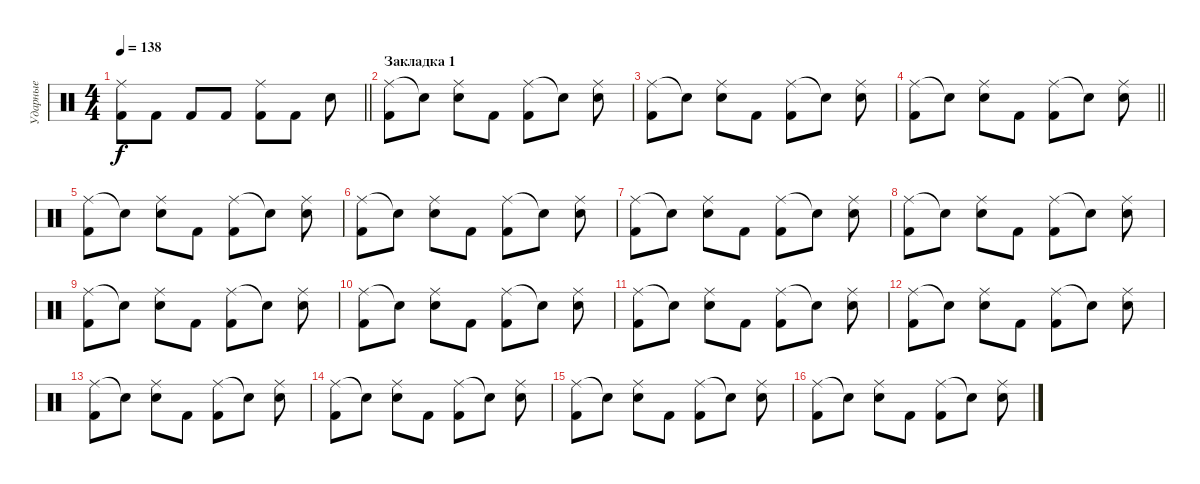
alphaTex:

\track ("Ударные" "Ударные") {instrument percussion}
\staff {score}
\articulation defaults
\ts (4 4)
\tempo 138
\clef neutral
\barLineRight lightlight
\ks c
("Ride (middle)" "Kick (hit) 2").8{dy f} "Kick (hit) 2".8 "Kick (hit) 2".8 "Kick (hit) 2".8 ("Ride (middle)" "Kick (hit) 2").8 "Kick (hit) 2".8 "Snare (hit) 2".8 |
\section ("" "Закладка 1")
("Ride (middle)" "Kick (hit) 2").8 "Snare (hit)"{t}.8 ("Ride (middle)" "Snare (hit) 2").8 "Kick (hit) 2".8 ("Ride (middle)" "Kick (hit) 2").8 "Snare (hit)"{t}.8 ("Ride (middle)" "Snare (hit) 2").8 |
("Ride (middle)" "Kick (hit) 2").8 "Snare (hit)"{t}.8 ("Ride (middle)" "Snare (hit) 2").8 "Kick (hit) 2".8 ("Ride (middle)" "Kick (hit) 2").8 "Snare (hit)"{t}.8 ("Ride (middle)" "Snare (hit) 2").8 |
\barLineRight lightlight
("Ride (middle)" "Kick (hit) 2").8 "Snare (hit)"{t}.8 ("Ride (middle)" "Snare (hit) 2").8 "Kick (hit) 2".8 ("Ride (middle)" "Kick (hit) 2").8 "Snare (hit)"{t}.8 ("Ride (middle)" "Snare (hit) 2").8 |
("Ride (middle)" "Kick (hit) 2").8 "Snare (hit)"{t}.8 ("Ride (middle)" "Snare (hit) 2").8 "Kick (hit) 2".8 ("Ride (middle)" "Kick (hit) 2").8 "Snare (hit)"{t}.8 ("Ride (middle)" "Snare (hit) 2").8 |
("Ride (middle)" "Kick (hit) 2").8 "Snare (hit)"{t}.8 ("Ride (middle)" "Snare (hit) 2").8 "Kick (hit) 2".8 ("Ride (middle)" "Kick (hit) 2").8 "Snare (hit)"{t}.8 ("Ride (middle)" "Snare (hit) 2").8 |
("Ride (middle)" "Kick (hit) 2").8 "Snare (hit)"{t}.8 ("Ride (middle)" "Snare (hit) 2").8 "Kick (hit) 2".8 ("Ride (middle)" "Kick (hit) 2").8 "Snare (hit)"{t}.8 ("Ride (middle)" "Snare (hit) 2").8 |
("Ride (middle)" "Kick (hit) 2").8 "Snare (hit)"{t}.8 ("Ride (middle)" "Snare (hit) 2").8 "Kick (hit) 2".8 ("Ride (middle)" "Kick (hit) 2").8 "Snare (hit)"{t}.8 ("Ride (middle)" "Snare (hit) 2").8 |
("Ride (middle)" "Kick (hit) 2").8 "Snare (hit)"{t}.8 ("Ride (middle)" "Snare (hit) 2").8 "Kick (hit) 2".8 ("Ride (middle)" "Kick (hit) 2").8 "Snare (hit)"{t}.8 ("Ride (middle)" "Snare (hit) 2").8 |
("Ride (middle)" "Kick (hit) 2").8 "Snare (hit)"{t}.8 ("Ride (middle)" "Snare (hit) 2").8 "Kick (hit) 2".8 ("Ride (middle)" "Kick (hit) 2").8 "Snare (hit)"{t}.8 ("Ride (middle)" "Snare (hit) 2").8 |
("Ride (middle)" "Kick (hit) 2").8 "Snare (hit)"{t}.8 ("Ride (middle)" "Snare (hit) 2").8 "Kick (hit) 2".8 ("Ride (middle)" "Kick (hit) 2").8 "Snare (hit)"{t}.8 ("Ride (middle)" "Snare (hit) 2").8 |
("Ride (middle)" "Kick (hit) 2").8 "Snare (hit)"{t}.8 ("Ride (middle)" "Snare (hit) 2").8 "Kick (hit) 2".8 ("Ride (middle)" "Kick (hit) 2").8 "Snare (hit)"{t}.8 ("Ride (middle)" "Snare (hit) 2").8 |
("Ride (middle)" "Kick (hit) 2").8 "Snare (hit)"{t}.8 ("Ride (middle)" "Snare (hit) 2").8 "Kick (hit) 2".8 ("Ride (middle)" "Kick (hit) 2").8 "Snare (hit)"{t}.8 ("Ride (middle)" "Snare (hit) 2").8 |
("Ride (middle)" "Kick (hit) 2").8 "Snare (hit)"{t}.8 ("Ride (middle)" "Snare (hit) 2").8 "Kick (hit) 2".8 ("Ride (middle)" "Kick (hit) 2").8 "Snare (hit)"{t}.8 ("Ride (middle)" "Snare (hit) 2").8 |
("Ride (middle)" "Kick (hit) 2").8 "Snare (hit)"{t}.8 ("Ride (middle)" "Snare (hit) 2").8 "Kick (hit) 2".8 ("Ride (middle)" "Kick (hit) 2").8 "Snare (hit)"{t}.8 ("Ride (middle)" "Snare (hit) 2").8 |
("Ride (middle)" "Kick (hit) 2").8 "Snare (hit)"{t}.8 ("Ride (middle)" "Snare (hit) 2").8 "Kick (hit) 2".8 ("Ride (middle)" "Kick (hit) 2").8 "Snare (hit)"{t}.8 ("Ride (middle)" "Snare (hit) 2").8
